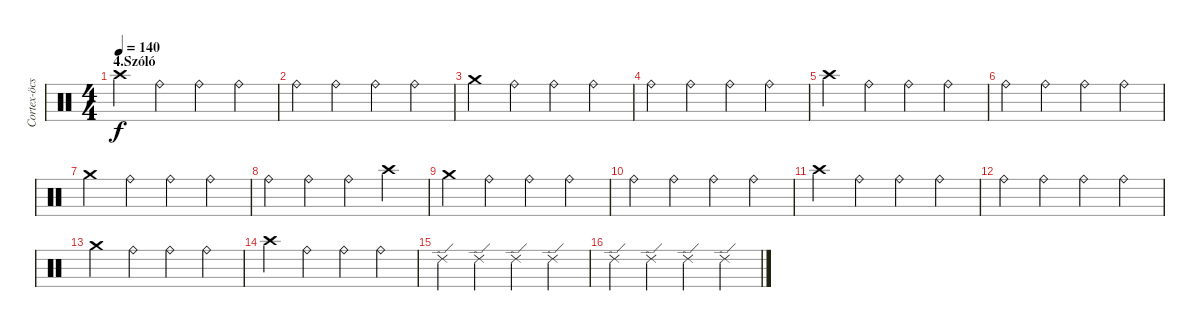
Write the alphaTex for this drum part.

\track ("Cortex-öcsi :)" "Cortex-öcs") {instrument percussion}
\staff {score}
\articulation defaults
\ts (4 4)
\section ("" "4.Szóló")
\tempo 140
\clef neutral
\ks c "Crash high (hit)".4{dy f} "Ride (bell)".4 "Ride (bell)".4 "Ride (bell)".4
|
"Ride (bell)".4 "Ride (bell)".4 "Ride (bell)".4 "Ride (bell)".4 |
"Crash medium (hit)".4 "Ride (bell)".4 "Ride (bell)".4 "Ride (bell)".4 |
"Ride (bell)".4 "Ride (bell)".4 "Ride (bell)".4 "Ride (bell)".4 |
"Crash high (hit)".4 "Ride (bell)".4 "Ride (bell)".4 "Ride (bell)".4 |
"Ride (bell)".4 "Ride (bell)".4 "Ride (bell)".4 "Ride (bell)".4 |
"Crash medium (hit)".4 "Ride (bell)".4 "Ride (bell)".4 "Ride (bell)".4 |
"Ride (bell)".4 "Ride (bell)".4 "Ride (bell)".4 "Crash high (hit)".4 |
"Crash medium (hit)".4 "Ride (bell)".4 "Ride (bell)".4 "Ride (bell)".4 |
"Ride (bell)".4 "Ride (bell)".4 "Ride (bell)".4 "Ride (bell)".4 |
"Crash high (hit)".4 "Ride (bell)".4 "Ride (bell)".4 "Ride (bell)".4 |
"Ride (bell)".4 "Ride (bell)".4 "Ride (bell)".4 "Ride (bell)".4 |
"Crash medium (hit)".4 "Ride (bell)".4 "Ride (bell)".4 "Ride (bell)".4 |
"Crash high (hit)".4 "Ride (bell)".4 "Ride (bell)".4 "Ride (bell)".4 |
"Ride (edge) 2".4 "Ride (edge) 2".4 "Ride (edge) 2".4 "Ride (edge) 2".4 |
"Ride (edge) 2".4 "Ride (edge) 2".4 "Ride (edge) 2".4 "Ride (edge) 2".4
